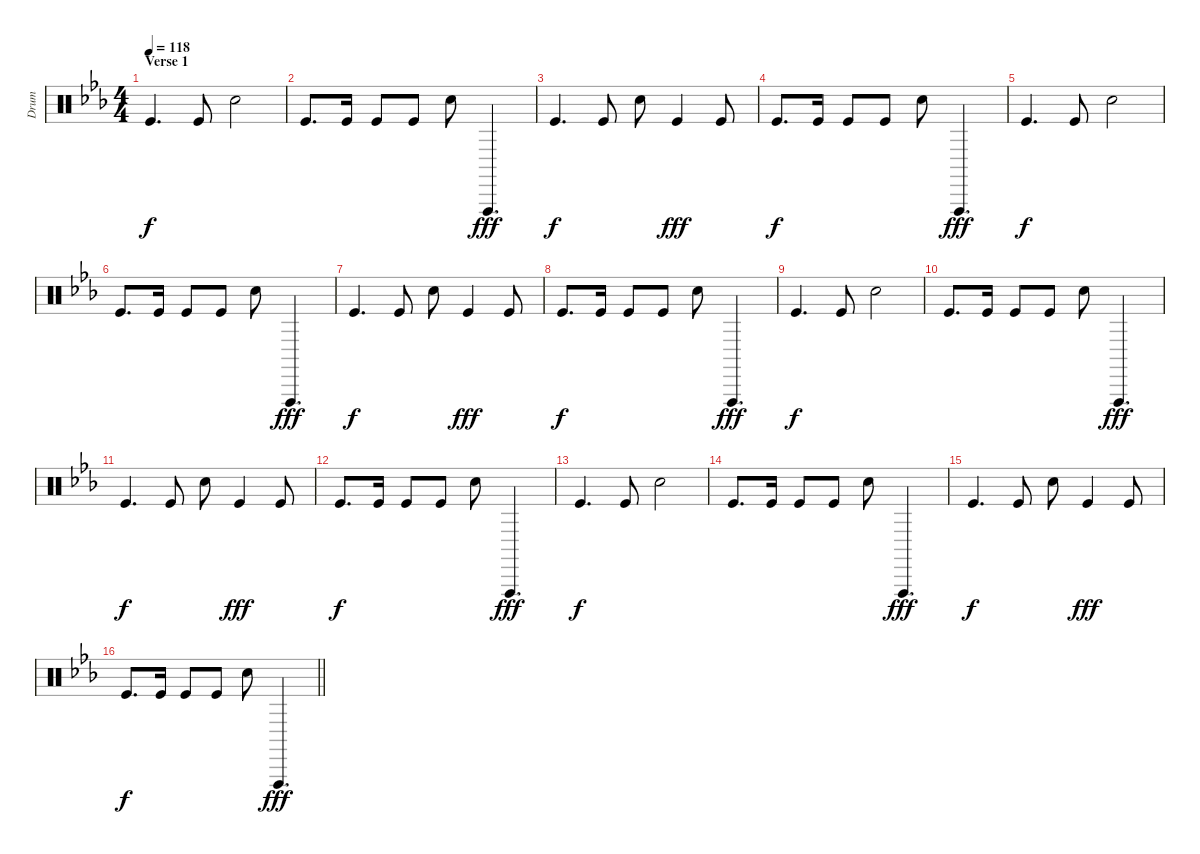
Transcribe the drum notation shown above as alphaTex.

\track ("Drum" "Drum") {instrument percussion}
\staff {score}
\articulation defaults
\ts (4 4)
\section ("" "Verse 1")
\tempo 118
\clef neutral
\ks eb "Kick (hit)".4{d dy f} "Kick (hit)".8 "Hand Clap (hit)".2
|
"Kick (hit)".8{d} "Kick (hit)".16 "Kick (hit)".8 "Kick (hit)".8 "Hand Clap (hit)".8 "Vibraslap (hit)".4{d dy fff} |
"Kick (hit)".4{d dy f} "Kick (hit)".8 "Hand Clap (hit)".8 "Kick (hit)".4{dy fff} "Kick (hit)".8 |
"Kick (hit)".8{d dy f} "Kick (hit)".16 "Kick (hit)".8 "Kick (hit)".8 "Hand Clap (hit)".8 "Vibraslap (hit)".4{d dy fff} |
"Kick (hit)".4{d dy f} "Kick (hit)".8 "Hand Clap (hit)".2 |
"Kick (hit)".8{d} "Kick (hit)".16 "Kick (hit)".8 "Kick (hit)".8 "Hand Clap (hit)".8 "Vibraslap (hit)".4{d dy fff} |
"Kick (hit)".4{d dy f} "Kick (hit)".8 "Hand Clap (hit)".8 "Kick (hit)".4{dy fff} "Kick (hit)".8 |
"Kick (hit)".8{d dy f} "Kick (hit)".16 "Kick (hit)".8 "Kick (hit)".8 "Hand Clap (hit)".8 "Vibraslap (hit)".4{d dy fff} |
"Kick (hit)".4{d dy f} "Kick (hit)".8 "Hand Clap (hit)".2 |
"Kick (hit)".8{d} "Kick (hit)".16 "Kick (hit)".8 "Kick (hit)".8 "Hand Clap (hit)".8 "Vibraslap (hit)".4{d dy fff} |
"Kick (hit)".4{d dy f} "Kick (hit)".8 "Hand Clap (hit)".8 "Kick (hit)".4{dy fff} "Kick (hit)".8 |
"Kick (hit)".8{d dy f} "Kick (hit)".16 "Kick (hit)".8 "Kick (hit)".8 "Hand Clap (hit)".8 "Vibraslap (hit)".4{d dy fff} |
"Kick (hit)".4{d dy f} "Kick (hit)".8 "Hand Clap (hit)".2 |
"Kick (hit)".8{d} "Kick (hit)".16 "Kick (hit)".8 "Kick (hit)".8 "Hand Clap (hit)".8 "Vibraslap (hit)".4{d dy fff} |
"Kick (hit)".4{d dy f} "Kick (hit)".8 "Hand Clap (hit)".8 "Kick (hit)".4{dy fff} "Kick (hit)".8 |
\barLineRight lightlight "Kick (hit)".8{d dy f} "Kick (hit)".16 "Kick (hit)".8 "Kick (hit)".8 "Hand Clap (hit)".8 "Vibraslap (hit)".4{d dy fff}
